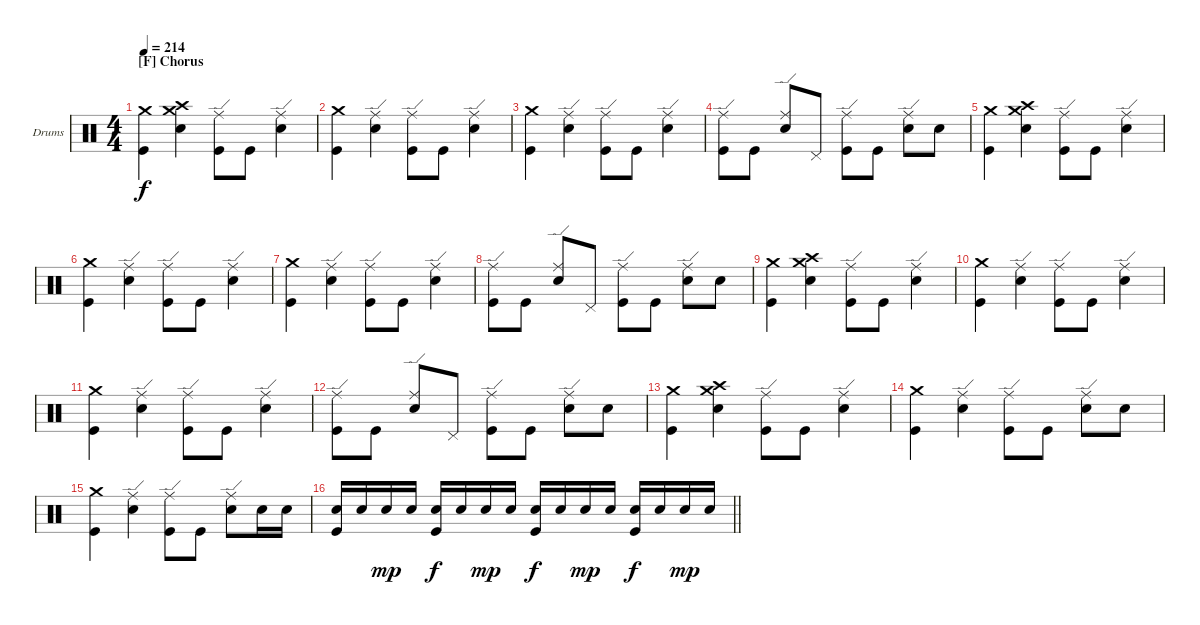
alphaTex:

\bracketExtendMode groupsimilarinstruments
\firstSystemTrackNameOrientation horizontal
\otherSystemsTrackNameOrientation horizontal
\track ("Drumkit" "Drums") {instrument percussion}
\staff {score}
\articulation defaults
\ts (4 4)
\section ("F" "Chorus")
\tempo 214
\clef neutral
\ks c
("Crash medium (hit)" "Kick (hit)").4{dy f} ("Snare (hit) 2" "Crash medium (hit)" "Crash high (hit)").4 ("Ride (edge)" "Kick (hit)").8 "Kick (hit)".8 ("Ride (edge)" "Snare (hit) 2").4 |
("Crash medium (hit)" "Kick (hit)").4 ("Ride (edge)" "Snare (hit) 2").4 ("Ride (edge)" "Kick (hit)").8 "Kick (hit)".8 ("Ride (edge)" "Snare (hit) 2").4 |
("Crash medium (hit)" "Kick (hit)").4 ("Ride (edge)" "Snare (hit) 2").4 ("Ride (edge)" "Kick (hit)").8 "Kick (hit)".8 ("Ride (edge)" "Snare (hit) 2").4 |
("Ride (edge)" "Kick (hit)").8 "Kick (hit)".8 ("Snare (hit) 2" "Ride (edge)").8 "Pedal Hi-Hat (hit)".8 ("Kick (hit)" "Ride (edge)").8 "Kick (hit)".8 ("Snare (hit) 2" "Ride (edge)").8 "Snare (hit) 2".8 |
("Crash medium (hit)" "Kick (hit)").4 ("Snare (hit) 2" "Crash medium (hit)" "Crash high (hit)").4 ("Ride (edge)" "Kick (hit)").8 "Kick (hit)".8 ("Ride (edge)" "Snare (hit) 2").4 |
("Crash medium (hit)" "Kick (hit)").4 ("Ride (edge)" "Snare (hit) 2").4 ("Ride (edge)" "Kick (hit)").8 "Kick (hit)".8 ("Ride (edge)" "Snare (hit) 2").4 |
("Crash medium (hit)" "Kick (hit)").4 ("Ride (edge)" "Snare (hit) 2").4 ("Ride (edge)" "Kick (hit)").8 "Kick (hit)".8 ("Ride (edge)" "Snare (hit) 2").4 |
("Ride (edge)" "Kick (hit)").8 "Kick (hit)".8 ("Snare (hit) 2" "Ride (edge)").8 "Pedal Hi-Hat (hit)".8 ("Kick (hit)" "Ride (edge)").8 "Kick (hit)".8 ("Snare (hit) 2" "Ride (edge)").8 "Snare (hit) 2".8 |
("Crash medium (hit)" "Kick (hit)").4 ("Snare (hit) 2" "Crash medium (hit)" "Crash high (hit)").4 ("Ride (edge)" "Kick (hit)").8 "Kick (hit)".8 ("Ride (edge)" "Snare (hit) 2").4 |
("Crash medium (hit)" "Kick (hit)").4 ("Ride (edge)" "Snare (hit) 2").4 ("Ride (edge)" "Kick (hit)").8 "Kick (hit)".8 ("Ride (edge)" "Snare (hit) 2").4 |
("Crash medium (hit)" "Kick (hit)").4 ("Ride (edge)" "Snare (hit) 2").4 ("Ride (edge)" "Kick (hit)").8 "Kick (hit)".8 ("Ride (edge)" "Snare (hit) 2").4 |
("Ride (edge)" "Kick (hit)").8 "Kick (hit)".8 ("Snare (hit) 2" "Ride (edge)").8 "Pedal Hi-Hat (hit)".8 ("Kick (hit)" "Ride (edge)").8 "Kick (hit)".8 ("Snare (hit) 2" "Ride (edge)").8 "Snare (hit) 2".8 |
("Crash medium (hit)" "Kick (hit)").4 ("Snare (hit) 2" "Crash medium (hit)" "Crash high (hit)").4 ("Ride (edge)" "Kick (hit)").8 "Kick (hit)".8 ("Ride (edge)" "Snare (hit) 2").4 |
("Crash medium (hit)" "Kick (hit)").4 ("Ride (edge)" "Snare (hit) 2").4 ("Ride (edge)" "Kick (hit)").8 "Kick (hit)".8 ("Ride (edge)" "Snare (hit) 2").8 "Snare (hit) 2".8 |
("Crash medium (hit)" "Kick (hit)").4 ("Ride (edge)" "Snare (hit) 2").4 ("Ride (edge)" "Kick (hit)").8 "Kick (hit)".8 ("Ride (edge)" "Snare (hit) 2").8 "Snare (hit) 2".16 "Snare (hit) 2".16 |
\barLineRight lightlight
("Kick (hit)" "Snare (hit) 2").16 "Snare (hit) 2".16 "Snare (hit) 2".16{dy mp} "Snare (hit) 2".16 ("Kick (hit)" "Snare (hit) 2").16{dy f} "Snare (hit) 2".16 "Snare (hit) 2".16{dy mp} "Snare (hit) 2".16 ("Kick (hit)" "Snare (hit) 2").16{dy f} "Snare (hit) 2".16 "Snare (hit) 2".16{dy mp} "Snare (hit) 2".16 ("Kick (hit)" "Snare (hit) 2").16{dy f} "Snare (hit) 2".16 "Snare (hit) 2".16{dy mp} "Snare (hit) 2".16
